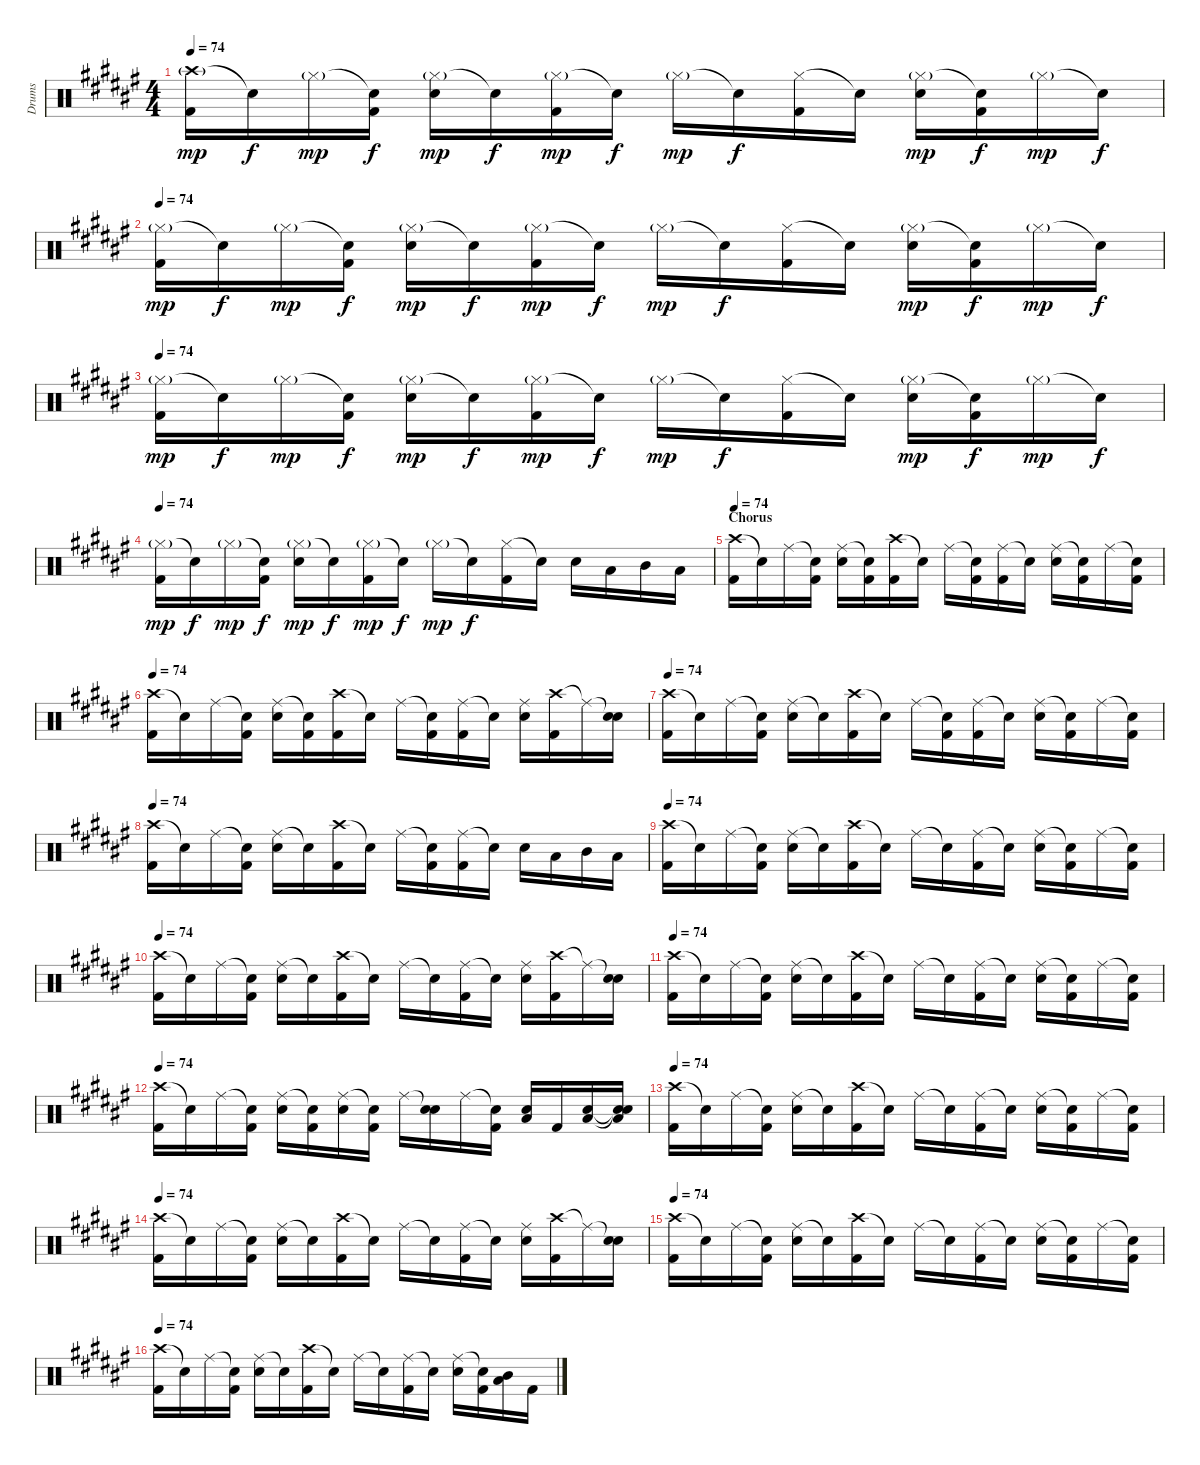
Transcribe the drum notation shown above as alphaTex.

\track ("Drums" "Drums") {instrument percussion}
\staff {score}
\articulation defaults
\ts (4 4)
\tempo 74
\clef neutral
\ks f#
("Crash high (hit)"{g} "Kick (hit) 2").16{dy mp} "Snare (hit)"{t}.16{dy f} "Hi-Hat (closed)"{g}.16{dy mp} ("Snare (hit)"{t} "Kick (hit) 2").16{dy f} ("Hi-Hat (closed)"{g} "Electric Snare (hit)").16{dy mp} "Snare (hit)"{t}.16{dy f} ("Hi-Hat (closed)"{g} "Kick (hit) 2").16{dy mp} "Snare (hit)"{t}.16{dy f} "Hi-Hat (closed)"{g}.16{dy mp} "Snare (hit)"{t}.16{dy f} ("Hi-Hat (closed)" "Kick (hit) 2").16 "Snare (hit)"{t}.16 ("Hi-Hat (closed)"{g} "Electric Snare (hit)").16{dy mp} ("Snare (hit)"{t} "Kick (hit) 2").16{dy f} "Hi-Hat (closed)"{g}.16{dy mp} "Snare (hit)"{t}.16{dy f} |
\tempo 74
("Hi-Hat (closed)"{g} "Kick (hit) 2").16{dy mp} "Snare (hit)"{t}.16{dy f} "Hi-Hat (closed)"{g}.16{dy mp} ("Snare (hit)"{t} "Kick (hit) 2").16{dy f} ("Hi-Hat (closed)"{g} "Electric Snare (hit)").16{dy mp} "Snare (hit)"{t}.16{dy f} ("Hi-Hat (closed)"{g} "Kick (hit) 2").16{dy mp} "Snare (hit)"{t}.16{dy f} "Hi-Hat (closed)"{g}.16{dy mp} "Snare (hit)"{t}.16{dy f} ("Hi-Hat (closed)" "Kick (hit) 2").16 "Snare (hit)"{t}.16 ("Hi-Hat (closed)"{g} "Electric Snare (hit)").16{dy mp} ("Snare (hit)"{t} "Kick (hit) 2").16{dy f} "Hi-Hat (closed)"{g}.16{dy mp} "Snare (hit)"{t}.16{dy f} |
\tempo 74
("Hi-Hat (closed)"{g} "Kick (hit) 2").16{dy mp} "Snare (hit)"{t}.16{dy f} "Hi-Hat (closed)"{g}.16{dy mp} ("Snare (hit)"{t} "Kick (hit) 2").16{dy f} ("Hi-Hat (closed)"{g} "Electric Snare (hit)").16{dy mp} "Snare (hit)"{t}.16{dy f} ("Hi-Hat (closed)"{g} "Kick (hit) 2").16{dy mp} "Snare (hit)"{t}.16{dy f} "Hi-Hat (closed)"{g}.16{dy mp} "Snare (hit)"{t}.16{dy f} ("Hi-Hat (closed)" "Kick (hit) 2").16 "Snare (hit)"{t}.16 ("Hi-Hat (closed)"{g} "Electric Snare (hit)").16{dy mp} ("Snare (hit)"{t} "Kick (hit) 2").16{dy f} "Hi-Hat (closed)"{g}.16{dy mp} "Snare (hit)"{t}.16{dy f} |
\tempo 74
("Hi-Hat (closed)"{g} "Kick (hit) 2").16{dy mp} "Snare (hit)"{t}.16{dy f} "Hi-Hat (closed)"{g}.16{dy mp} ("Snare (hit)"{t} "Kick (hit) 2").16{dy f} ("Hi-Hat (closed)"{g} "Electric Snare (hit)").16{dy mp} "Snare (hit)"{t}.16{dy f} ("Hi-Hat (closed)"{g} "Kick (hit) 2").16{dy mp} "Snare (hit)"{t}.16{dy f} "Hi-Hat (closed)"{g}.16{dy mp} "Snare (hit)"{t}.16{dy f} ("Hi-Hat (closed)" "Kick (hit) 2").16 "Snare (hit)"{t}.16 "Electric Snare (hit)".16 "Low Tom (hit)".16 "Mid Tom (hit)".16 "Low Floor Tom (hit)".16 |
\section ("" "Chorus")
\tempo 74
("Crash high (hit)" "Kick (hit) 2").16 "Snare (hit)"{t}.16 "Ride (middle)".16 ("Snare (hit)"{t} "Kick (hit) 2").16 ("Ride (middle)" "Electric Snare (hit)").16 ("Snare (hit)"{t} "Kick (hit) 2").16 ("Crash high (hit)" "Kick (hit) 2").16 "Snare (hit)"{t}.16 "Ride (middle)".16 ("Snare (hit)"{t} "Kick (hit) 2").16 ("Ride (middle)" "Kick (hit) 2").16 "Snare (hit)"{t}.16 ("Ride (middle)" "Electric Snare (hit)").16 ("Snare (hit)"{t} "Kick (hit) 2").16 "Ride (middle)".16 ("Snare (hit)"{t} "Kick (hit) 2").16 |
\tempo 74
("Crash high (hit)" "Kick (hit) 2").16 "Snare (hit)"{t}.16 "Ride (middle)".16 ("Snare (hit)"{t} "Kick (hit) 2").16 ("Ride (middle)" "Electric Snare (hit)").16 ("Snare (hit)"{t} "Kick (hit) 2").16 ("Crash high (hit)" "Kick (hit) 2").16 "Snare (hit)"{t}.16 "Ride (middle)".16 ("Snare (hit)"{t} "Kick (hit) 2").16 ("Ride (middle)" "Kick (hit) 2").16 "Snare (hit)"{t}.16 ("Ride (middle)" "Electric Snare (hit)").16 ("Crash high (hit)" "Kick (hit) 2").16 "Ride (middle)"{t}.16 ("Snare (hit)"{t} "Electric Snare (hit)").16 |
\tempo 74
("Crash high (hit)" "Kick (hit) 2").16 "Snare (hit)"{t}.16 "Ride (middle)".16 ("Snare (hit)"{t} "Kick (hit) 2").16 ("Ride (middle)" "Electric Snare (hit)").16 "Snare (hit)"{t}.16 ("Crash high (hit)" "Kick (hit) 2").16 "Snare (hit)"{t}.16 "Ride (middle)".16 ("Snare (hit)"{t} "Kick (hit) 2").16 ("Ride (middle)" "Kick (hit) 2").16 "Snare (hit)"{t}.16 ("Ride (middle)" "Electric Snare (hit)").16 ("Snare (hit)"{t} "Kick (hit) 2").16 "Ride (middle)".16 ("Snare (hit)"{t} "Kick (hit) 2").16 |
\tempo 74
("Crash high (hit)" "Kick (hit) 2").16 "Snare (hit)"{t}.16 "Ride (middle)".16 ("Snare (hit)"{t} "Kick (hit) 2").16 ("Ride (middle)" "Electric Snare (hit)").16 "Snare (hit)"{t}.16 ("Crash high (hit)" "Kick (hit) 2").16 "Snare (hit)"{t}.16 "Ride (middle)".16 ("Snare (hit)"{t} "Kick (hit) 2").16 ("Ride (middle)" "Kick (hit) 2").16 "Snare (hit)"{t}.16 "Electric Snare (hit)".16 "Low Tom (hit)".16 "Mid Tom (hit)".16 "Low Floor Tom (hit)".16 |
\tempo 74
("Crash high (hit)" "Kick (hit) 2").16 "Snare (hit)"{t}.16 "Ride (middle)".16 ("Snare (hit)"{t} "Kick (hit) 2").16 ("Ride (middle)" "Electric Snare (hit)").16 "Snare (hit)"{t}.16 ("Crash high (hit)" "Kick (hit) 2").16 "Snare (hit)"{t}.16 "Ride (middle)".16 "Snare (hit)"{t}.16 ("Ride (middle)" "Kick (hit) 2").16 "Snare (hit)"{t}.16 ("Ride (middle)" "Electric Snare (hit)").16 ("Snare (hit)"{t} "Kick (hit) 2").16 "Ride (middle)".16 ("Snare (hit)"{t} "Kick (hit) 2").16 |
\tempo 74
("Crash high (hit)" "Kick (hit) 2").16 "Snare (hit)"{t}.16 "Ride (middle)".16 ("Snare (hit)"{t} "Kick (hit) 2").16 ("Ride (middle)" "Electric Snare (hit)").16 "Snare (hit)"{t}.16 ("Crash high (hit)" "Kick (hit) 2").16 "Snare (hit)"{t}.16 "Ride (middle)".16 "Snare (hit)"{t}.16 ("Ride (middle)" "Kick (hit) 2").16 "Snare (hit)"{t}.16 ("Ride (middle)" "Electric Snare (hit)").16 ("Crash high (hit)" "Kick (hit) 2").16 "Ride (middle)"{t}.16 ("Snare (hit)"{t} "Electric Snare (hit)").16 |
\tempo 74
("Crash high (hit)" "Kick (hit) 2").16 "Snare (hit)"{t}.16 "Ride (middle)".16 ("Snare (hit)"{t} "Kick (hit) 2").16 ("Ride (middle)" "Electric Snare (hit)").16 "Snare (hit)"{t}.16 ("Crash high (hit)" "Kick (hit) 2").16 "Snare (hit)"{t}.16 "Ride (middle)".16 "Snare (hit)"{t}.16 ("Ride (middle)" "Kick (hit) 2").16 "Snare (hit)"{t}.16 ("Ride (middle)" "Electric Snare (hit)").16 ("Snare (hit)"{t} "Kick (hit) 2").16 "Ride (middle)".16 ("Snare (hit)"{t} "Kick (hit) 2").16 |
\tempo 74
("Crash high (hit)" "Kick (hit) 2").16 "Snare (hit)"{t}.16 "Ride (middle)".16 ("Snare (hit)"{t} "Kick (hit) 2").16 ("Ride (middle)" "Electric Snare (hit)").16 ("Snare (hit)"{t} "Kick (hit) 2").16 ("Ride (middle)" "Electric Snare (hit)").16 ("Snare (hit)"{t} "Kick (hit) 2").16 "Ride (middle)".16 ("Snare (hit)"{t} "Electric Snare (hit)").16 "Ride (middle)".16 ("Snare (hit)"{t} "Kick (hit) 2").16 ("Electric Snare (hit)" "Low Floor Tom (hit)").16 "Kick (hit) 2".16 ("Electric Snare (hit)" "Low Floor Tom (hit)").16 ("Snare (hit)"{t} "Snare (hit)"{t} "Low Floor Tom (hit)").16 |
\tempo 74
("Crash high (hit)" "Kick (hit) 2").16 "Snare (hit)"{t}.16 "Ride (middle)".16 ("Snare (hit)"{t} "Kick (hit) 2").16 ("Ride (middle)" "Electric Snare (hit)").16 "Snare (hit)"{t}.16 ("Crash high (hit)" "Kick (hit) 2").16 "Snare (hit)"{t}.16 "Ride (middle)".16 "Snare (hit)"{t}.16 ("Ride (middle)" "Kick (hit) 2").16 "Snare (hit)"{t}.16 ("Ride (middle)" "Electric Snare (hit)").16 ("Snare (hit)"{t} "Kick (hit) 2").16 "Ride (middle)".16 ("Snare (hit)"{t} "Kick (hit) 2").16 |
\tempo 74
("Crash high (hit)" "Kick (hit) 2").16 "Snare (hit)"{t}.16 "Ride (middle)".16 ("Snare (hit)"{t} "Kick (hit) 2").16 ("Ride (middle)" "Electric Snare (hit)").16 "Snare (hit)"{t}.16 ("Crash high (hit)" "Kick (hit) 2").16 "Snare (hit)"{t}.16 "Ride (middle)".16 "Snare (hit)"{t}.16 ("Ride (middle)" "Kick (hit) 2").16 "Snare (hit)"{t}.16 ("Ride (middle)" "Electric Snare (hit)").16 ("Crash high (hit)" "Kick (hit) 2").16 "Ride (middle)"{t}.16 ("Snare (hit)"{t} "Electric Snare (hit)").16 |
\tempo 74
("Crash high (hit)" "Kick (hit) 2").16 "Snare (hit)"{t}.16 "Ride (middle)".16 ("Snare (hit)"{t} "Kick (hit) 2").16 ("Ride (middle)" "Electric Snare (hit)").16 "Snare (hit)"{t}.16 ("Crash high (hit)" "Kick (hit) 2").16 "Snare (hit)"{t}.16 "Ride (middle)".16 "Snare (hit)"{t}.16 ("Ride (middle)" "Kick (hit) 2").16 "Snare (hit)"{t}.16 ("Ride (middle)" "Electric Snare (hit)").16 ("Snare (hit)"{t} "Kick (hit) 2").16 "Ride (middle)".16 ("Snare (hit)"{t} "Kick (hit) 2").16 |
\tempo 74
("Crash high (hit)" "Kick (hit) 2").16 "Snare (hit)"{t}.16 "Ride (middle)".16 ("Snare (hit)"{t} "Kick (hit) 2").16 ("Ride (middle)" "Electric Snare (hit)").16 "Snare (hit)"{t}.16 ("Crash high (hit)" "Kick (hit) 2").16 "Snare (hit)"{t}.16 "Ride (middle)".16 "Snare (hit)"{t}.16 ("Ride (middle)" "Kick (hit) 2").16 "Snare (hit)"{t}.16 ("Ride (middle)" "Electric Snare (hit)").16 ("Snare (hit)"{t} "Kick (hit) 2").16 ("Mid Tom (hit)" "Low Floor Tom (hit)").16 "Kick (hit) 2".16
